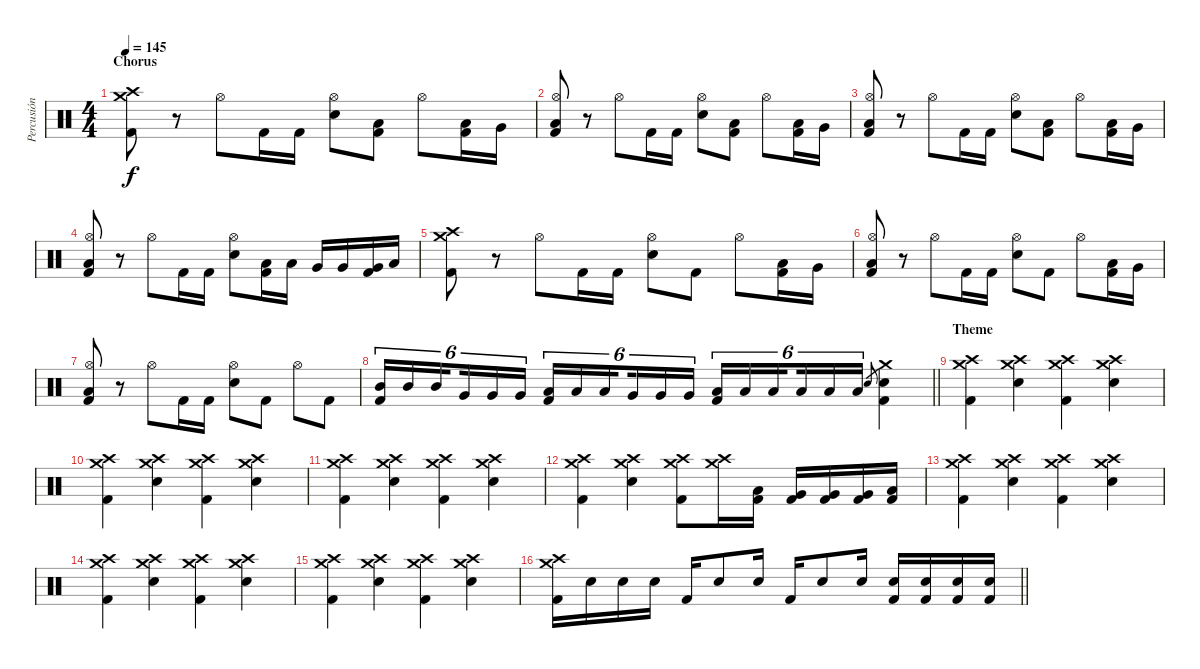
\track ("Percusión" "Percusión") {instrument percussion}
\staff {score}
\articulation defaults
\ts (4 4)
\section ("" "Chorus")
\tempo 145
\clef neutral
\ks c
("Crash medium (hit)" "Crash high (hit)" "Kick (hit) 2").8{dy f} r.8 "Hi-Hat (open)".8 "Kick (hit) 2".16 "Kick (hit) 2".16 ("Hi-Hat (open)" "Electric Snare (hit)").8 ("Low Tom (hit)" "Kick (hit) 2").8 "Hi-Hat (open)".8 ("Low Tom (hit)" "Kick (hit) 2").16 "Very Low Tom (hit)".16 |
("Hi-Hat (open)" "Low Floor Tom (hit)" "Kick (hit) 2").8 r.8 "Hi-Hat (open)".8 "Kick (hit) 2".16 "Kick (hit) 2".16 ("Hi-Hat (open)" "Electric Snare (hit)").8 ("Low Tom (hit)" "Kick (hit) 2").8 "Hi-Hat (open)".8 ("Low Tom (hit)" "Kick (hit) 2").16 "Very Low Tom (hit)".16 |
("Hi-Hat (open)" "Low Floor Tom (hit)" "Kick (hit) 2").8 r.8 "Hi-Hat (open)".8 "Kick (hit) 2".16 "Kick (hit) 2".16 ("Hi-Hat (open)" "Electric Snare (hit)").8 ("Low Tom (hit)" "Kick (hit) 2").8 "Hi-Hat (open)".8 ("Low Tom (hit)" "Kick (hit) 2").16 "Very Low Tom (hit)".16 |
("Hi-Hat (open)" "Low Floor Tom (hit)" "Kick (hit) 2").8 r.8 "Hi-Hat (open)".8 "Kick (hit) 2".16 "Kick (hit) 2".16 ("Hi-Hat (open)" "Electric Snare (hit)").8 ("Low Tom (hit)" "Kick (hit) 2").16 "Low Tom (hit)".16 "Very Low Tom (hit)".16 "Very Low Tom (hit)".16 ("Very Low Tom (hit)" "Kick (hit) 2").16 "Low Floor Tom (hit)".16 |
("Crash medium (hit)" "Crash high (hit)" "Kick (hit) 2").8 r.8 "Hi-Hat (open)".8 "Kick (hit) 2".16 "Kick (hit) 2".16 ("Hi-Hat (open)" "Electric Snare (hit)").8 "Kick (hit) 2".8 "Hi-Hat (open)".8 ("Low Tom (hit)" "Kick (hit) 2").16 "Very Low Tom (hit)".16 |
("Hi-Hat (open)" "Low Floor Tom (hit)" "Kick (hit) 2").8 r.8 "Hi-Hat (open)".8 "Kick (hit) 2".16 "Kick (hit) 2".16 ("Hi-Hat (open)" "Electric Snare (hit)").8 "Kick (hit) 2".8 "Hi-Hat (open)".8 ("Low Tom (hit)" "Kick (hit) 2").16 "Very Low Tom (hit)".16 |
("Hi-Hat (open)" "Low Floor Tom (hit)" "Kick (hit) 2").8 r.8 "Hi-Hat (open)".8 "Kick (hit) 2".16 "Kick (hit) 2".16 ("Hi-Hat (open)" "Electric Snare (hit)").8 "Kick (hit) 2".8 "Hi-Hat (open)".8 "Kick (hit) 2".8 |
\barLineRight lightlight
("Mid Tom (hit)" "Kick (hit) 2").16{tu (6 4)} "Mid Tom (hit)".16{tu (6 4)} "Mid Tom (hit)".16{tu (6 4) beam splitsecondary} "Very Low Tom (hit)".16{tu (6 4)} "Very Low Tom (hit)".16{tu (6 4)} "Very Low Tom (hit)".16{tu (6 4)} ("Low Tom (hit)" "Kick (hit) 2").16{tu (6 4)} "Low Tom (hit)".16{tu (6 4)} "Low Tom (hit)".16{tu (6 4) beam splitsecondary} "Very Low Tom (hit)".16{tu (6 4)} "Very Low Tom (hit)".16{tu (6 4)} "Very Low Tom (hit)".16{tu (6 4)} ("Low Tom (hit)" "Kick (hit) 2").16{tu (6 4)} "Low Tom (hit)".16{tu (6 4)} "Low Tom (hit)".16{tu (6 4) beam splitsecondary} "Low Floor Tom (hit)".16{tu (6 4)} "Low Floor Tom (hit)".16{tu (6 4)} "Low Floor Tom (hit)".16{tu (6 4)} "Electric Snare (hit)".8{gr} ("Crash medium (hit)" "Electric Snare (hit)" "Kick (hit) 2").4 |
\section ("" "Theme")
("Crash medium (hit)" "Crash high (hit)" "Kick (hit) 2").4 ("Crash medium (hit)" "Crash high (hit)" "Electric Snare (hit)").4 ("Crash medium (hit)" "Crash high (hit)" "Kick (hit) 2").4 ("Crash medium (hit)" "Crash high (hit)" "Electric Snare (hit)").4 |
("Crash medium (hit)" "Crash high (hit)" "Kick (hit) 2").4 ("Crash medium (hit)" "Crash high (hit)" "Electric Snare (hit)").4 ("Crash medium (hit)" "Crash high (hit)" "Kick (hit) 2").4 ("Crash medium (hit)" "Crash high (hit)" "Electric Snare (hit)").4 |
("Crash medium (hit)" "Crash high (hit)" "Kick (hit) 2").4 ("Crash medium (hit)" "Crash high (hit)" "Electric Snare (hit)").4 ("Crash medium (hit)" "Crash high (hit)" "Kick (hit) 2").4 ("Crash medium (hit)" "Crash high (hit)" "Electric Snare (hit)").4 |
("Crash medium (hit)" "Crash high (hit)" "Kick (hit) 2").4 ("Crash medium (hit)" "Crash high (hit)" "Electric Snare (hit)").4 ("Crash medium (hit)" "Crash high (hit)" "Kick (hit) 2").8 ("Crash medium (hit)" "Crash high (hit)").16 ("Low Tom (hit)" "Kick (hit) 2").16 ("Very Low Tom (hit)" "Kick (hit) 2").16 ("Very Low Tom (hit)" "Kick (hit) 2").16 ("Very Low Tom (hit)" "Kick (hit) 2").16 ("Low Floor Tom (hit)" "Kick (hit) 2").16 |
("Crash medium (hit)" "Crash high (hit)" "Kick (hit) 2").4 ("Crash medium (hit)" "Crash high (hit)" "Electric Snare (hit)").4 ("Crash medium (hit)" "Crash high (hit)" "Kick (hit) 2").4 ("Crash medium (hit)" "Crash high (hit)" "Electric Snare (hit)").4 |
("Crash medium (hit)" "Crash high (hit)" "Kick (hit) 2").4 ("Crash medium (hit)" "Crash high (hit)" "Electric Snare (hit)").4 ("Crash medium (hit)" "Crash high (hit)" "Kick (hit) 2").4 ("Crash medium (hit)" "Crash high (hit)" "Electric Snare (hit)").4 |
("Crash medium (hit)" "Crash high (hit)" "Kick (hit) 2").4 ("Crash medium (hit)" "Crash high (hit)" "Electric Snare (hit)").4 ("Crash medium (hit)" "Crash high (hit)" "Kick (hit) 2").4 ("Crash medium (hit)" "Crash high (hit)" "Electric Snare (hit)").4 |
\barLineRight lightlight
("Crash medium (hit)" "Crash high (hit)" "Kick (hit) 2").16 "Electric Snare (hit)".16 "Electric Snare (hit)".16 "Electric Snare (hit)".16 "Kick (hit) 2".16 "Electric Snare (hit)".8 "Electric Snare (hit)".16 "Kick (hit) 2".16 "Electric Snare (hit)".8 "Electric Snare (hit)".16 ("Electric Snare (hit)" "Kick (hit) 2").16 ("Electric Snare (hit)" "Kick (hit) 2").16 ("Electric Snare (hit)" "Kick (hit) 2").16 ("Electric Snare (hit)" "Kick (hit) 2").16
